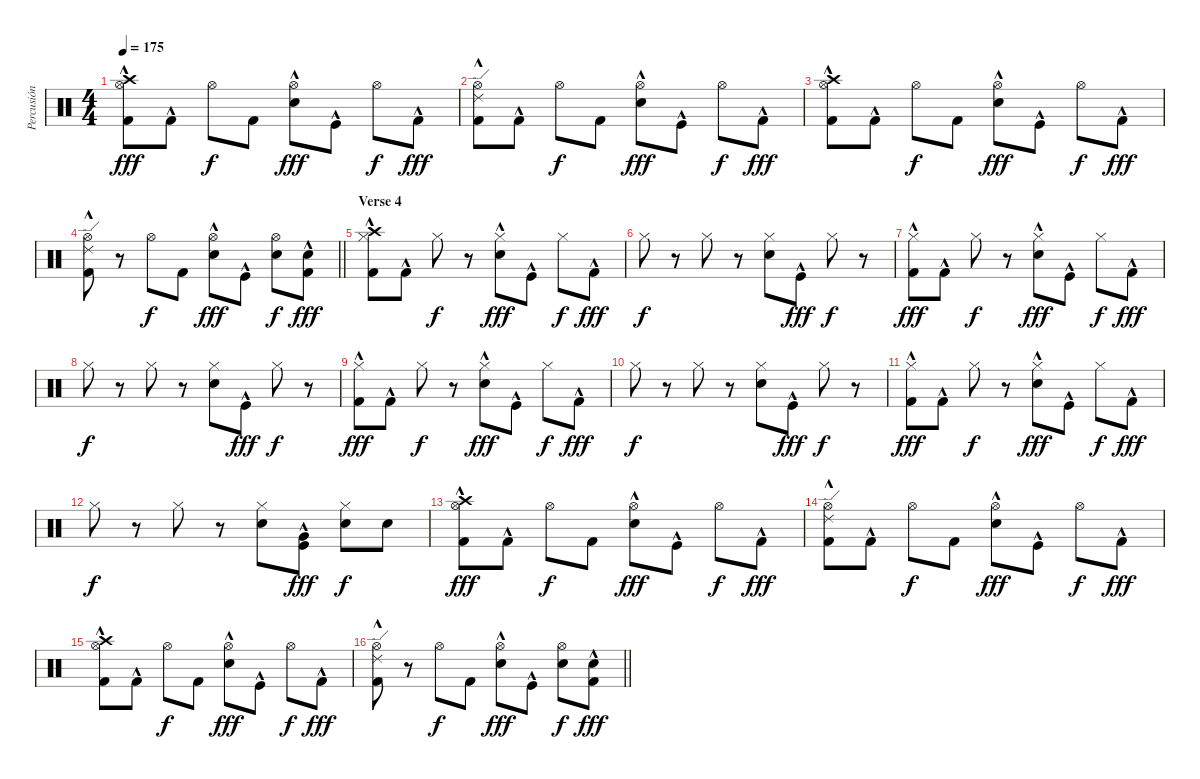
\track ("Percusión" "Percusión") {instrument percussion}
\staff {score}
\articulation defaults
\ts (4 4)
\tempo 175
\clef neutral
\ks c
("Hi-Hat (open)" "Crash high (hit)" "Kick (hit) 2"{hac}).8{dy fff} "Kick (hit) 2"{hac}.8 "Hi-Hat (open)".8{dy f} "Kick (hit) 2".8 ("Hi-Hat (open)" "Electric Snare (hit)"{hac}).8{dy fff} "Kick (hit)"{hac}.8 "Hi-Hat (open)".8{dy f} "Kick (hit) 2"{hac}.8{dy fff} |
("Hi-Hat (open)" "Ride (edge) 2" "Kick (hit) 2"{hac}).8 "Kick (hit) 2"{hac}.8 "Hi-Hat (open)".8{dy f} "Kick (hit) 2".8 ("Hi-Hat (open)" "Electric Snare (hit)"{hac}).8{dy fff} "Kick (hit)"{hac}.8 "Hi-Hat (open)".8{dy f} "Kick (hit) 2"{hac}.8{dy fff} |
("Hi-Hat (open)" "Crash high (hit)" "Kick (hit) 2"{hac}).8 "Kick (hit) 2"{hac}.8 "Hi-Hat (open)".8{dy f} "Kick (hit) 2".8 ("Hi-Hat (open)" "Electric Snare (hit)"{hac}).8{dy fff} "Kick (hit)"{hac}.8 "Hi-Hat (open)".8{dy f} "Kick (hit) 2"{hac}.8{dy fff} |
\barLineRight lightlight
("Hi-Hat (open)" "Ride (edge) 2" "Kick (hit) 2"{hac}).8 r.8 "Hi-Hat (open)".8{dy f} "Kick (hit) 2".8 ("Hi-Hat (open)" "Electric Snare (hit)"{hac}).8{dy fff} "Kick (hit)"{hac}.8 ("Hi-Hat (open)" "Electric Snare (hit)").8{dy f} ("Electric Snare (hit)" "Kick (hit) 2"{hac}).8{dy fff} |
\section ("" "Verse 4")
("Hi-Hat (closed)" "Crash high (hit)" "Kick (hit) 2"{hac}).8 "Kick (hit) 2"{hac}.8 "Hi-Hat (closed)".8{dy f} r.8 ("Hi-Hat (closed)" "Electric Snare (hit)"{hac}).8{dy fff} "Kick (hit)"{hac}.8 "Hi-Hat (closed)".8{dy f} "Kick (hit) 2"{hac}.8{dy fff} |
"Hi-Hat (closed)".8{dy f} r.8 "Hi-Hat (closed)".8 r.8 ("Hi-Hat (closed)" "Electric Snare (hit)").8 "Kick (hit)"{hac}.8{dy fff} "Hi-Hat (closed)".8{dy f} r.8 |
("Hi-Hat (closed)" "Kick (hit) 2"{hac}).8{dy fff} "Kick (hit) 2"{hac}.8 "Hi-Hat (closed)".8{dy f} r.8 ("Hi-Hat (closed)" "Electric Snare (hit)"{hac}).8{dy fff} "Kick (hit)"{hac}.8 "Hi-Hat (closed)".8{dy f} "Kick (hit) 2"{hac}.8{dy fff} |
"Hi-Hat (closed)".8{dy f} r.8 "Hi-Hat (closed)".8 r.8 ("Hi-Hat (closed)" "Electric Snare (hit)").8 "Kick (hit)"{hac}.8{dy fff} "Hi-Hat (closed)".8{dy f} r.8 |
("Hi-Hat (closed)" "Kick (hit) 2"{hac}).8{dy fff} "Kick (hit) 2"{hac}.8 "Hi-Hat (closed)".8{dy f} r.8 ("Hi-Hat (closed)" "Electric Snare (hit)"{hac}).8{dy fff} "Kick (hit)"{hac}.8 "Hi-Hat (closed)".8{dy f} "Kick (hit) 2"{hac}.8{dy fff} |
"Hi-Hat (closed)".8{dy f} r.8 "Hi-Hat (closed)".8 r.8 ("Hi-Hat (closed)" "Electric Snare (hit)").8 "Kick (hit)"{hac}.8{dy fff} "Hi-Hat (closed)".8{dy f} r.8 |
("Hi-Hat (closed)" "Kick (hit) 2"{hac}).8{dy fff} "Kick (hit) 2"{hac}.8 "Hi-Hat (closed)".8{dy f} r.8 ("Hi-Hat (closed)" "Electric Snare (hit)"{hac}).8{dy fff} "Kick (hit)"{hac}.8 "Hi-Hat (closed)".8{dy f} "Kick (hit) 2"{hac}.8{dy fff} |
"Hi-Hat (closed)".8{dy f} r.8 "Hi-Hat (closed)".8 r.8 ("Hi-Hat (closed)" "Electric Snare (hit)").8 ("Very Low Tom (hit)" "Kick (hit)"{hac}).8{dy fff} ("Hi-Hat (closed)" "Electric Snare (hit)").8{dy f} "Electric Snare (hit)".8 |
("Hi-Hat (open)" "Crash high (hit)" "Kick (hit) 2"{hac}).8{dy fff} "Kick (hit) 2"{hac}.8 "Hi-Hat (open)".8{dy f} "Kick (hit) 2".8 ("Hi-Hat (open)" "Electric Snare (hit)"{hac}).8{dy fff} "Kick (hit)"{hac}.8 "Hi-Hat (open)".8{dy f} "Kick (hit) 2"{hac}.8{dy fff} |
("Hi-Hat (open)" "Ride (edge) 2" "Kick (hit) 2"{hac}).8 "Kick (hit) 2"{hac}.8 "Hi-Hat (open)".8{dy f} "Kick (hit) 2".8 ("Hi-Hat (open)" "Electric Snare (hit)"{hac}).8{dy fff} "Kick (hit)"{hac}.8 "Hi-Hat (open)".8{dy f} "Kick (hit) 2"{hac}.8{dy fff} |
("Hi-Hat (open)" "Crash high (hit)" "Kick (hit) 2"{hac}).8 "Kick (hit) 2"{hac}.8 "Hi-Hat (open)".8{dy f} "Kick (hit) 2".8 ("Hi-Hat (open)" "Electric Snare (hit)"{hac}).8{dy fff} "Kick (hit)"{hac}.8 "Hi-Hat (open)".8{dy f} "Kick (hit) 2"{hac}.8{dy fff} |
\barLineRight lightlight
("Hi-Hat (open)" "Ride (edge) 2" "Kick (hit) 2"{hac}).8 r.8 "Hi-Hat (open)".8{dy f} "Kick (hit) 2".8 ("Hi-Hat (open)" "Electric Snare (hit)"{hac}).8{dy fff} "Kick (hit)"{hac}.8 ("Hi-Hat (open)" "Electric Snare (hit)").8{dy f} ("Electric Snare (hit)" "Kick (hit) 2"{hac}).8{dy fff}
